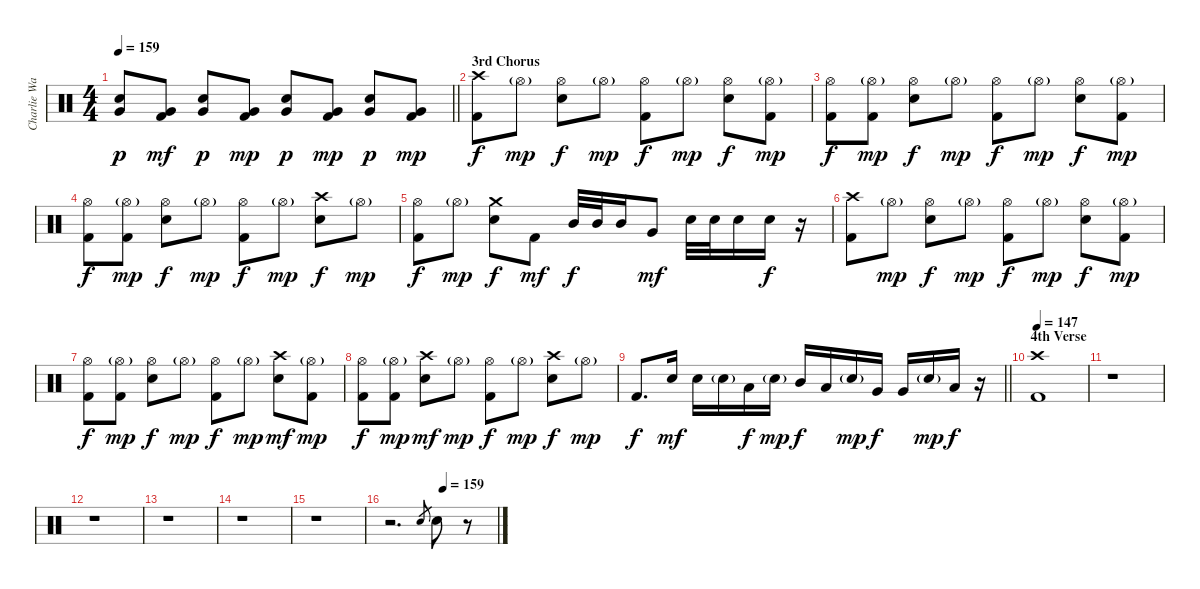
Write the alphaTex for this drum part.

\track ("Charlie Watts (Drums)" "Charlie Wa") {instrument percussion}
\staff {score}
\articulation defaults
\ts (4 4)
\tempo 159
\clef neutral
\barLineRight lightlight
\ks c
("Very Low Tom (hit)" "Electric Snare (hit)").8{dy p} ("Very Low Tom (hit)" "Kick (hit) 2").8{dy mf} ("Very Low Tom (hit)" "Electric Snare (hit)").8{dy p} ("Very Low Tom (hit)" "Kick (hit) 2").8{dy mp} ("Very Low Tom (hit)" "Electric Snare (hit)").8{dy p} ("Very Low Tom (hit)" "Kick (hit) 2").8{dy mp} ("Very Low Tom (hit)" "Electric Snare (hit)").8{dy p} ("Very Low Tom (hit)" "Kick (hit) 2").8{dy mp} |
\section ("" "3rd Chorus")
("Crash high (hit)" "Kick (hit) 2").8{dy f} "Hi-Hat (open)"{g}.8{dy mp} ("Hi-Hat (open)" "Electric Snare (hit)").8{dy f} "Hi-Hat (open)"{g}.8{dy mp} ("Hi-Hat (open)" "Kick (hit) 2").8{dy f} "Hi-Hat (open)"{g}.8{dy mp} ("Hi-Hat (open)" "Electric Snare (hit)").8{dy f} ("Hi-Hat (open)"{g} "Kick (hit) 2").8{dy mp} |
("Hi-Hat (open)" "Kick (hit) 2").8{dy f} ("Hi-Hat (open)"{g} "Kick (hit) 2").8{dy mp} ("Hi-Hat (open)" "Electric Snare (hit)").8{dy f} "Hi-Hat (open)"{g}.8{dy mp} ("Hi-Hat (open)" "Kick (hit) 2").8{dy f} "Hi-Hat (open)"{g}.8{dy mp} ("Hi-Hat (open)" "Electric Snare (hit)").8{dy f} ("Hi-Hat (open)"{g} "Kick (hit) 2").8{dy mp} |
("Hi-Hat (open)" "Kick (hit) 2").8{dy f} ("Hi-Hat (open)"{g} "Kick (hit) 2").8{dy mp} ("Hi-Hat (open)" "Electric Snare (hit)").8{dy f} "Hi-Hat (open)"{g}.8{dy mp} ("Hi-Hat (open)" "Kick (hit) 2").8{dy f} "Hi-Hat (open)"{g}.8{dy mp} ("Crash high (hit)" "Electric Snare (hit)").8{dy f} "Hi-Hat (open)"{g}.8{dy mp} |
("Hi-Hat (open)" "Kick (hit) 2").8{dy f} "Hi-Hat (open)"{g}.8{dy mp} ("Crash medium (hit)" "Electric Snare (hit)").8{dy f} "Kick (hit) 2".8{dy mf} "Mid Tom (hit)".32{dy f} "Mid Tom (hit)".32 "Mid Tom (hit)".16 "Very Low Tom (hit)".8{dy mf} "Electric Snare (hit)".32 "Electric Snare (hit)".32 "Electric Snare (hit)".16 "Electric Snare (hit)".16{dy f} r.16 |
("Crash high (hit)" "Kick (hit) 2").8 "Hi-Hat (open)"{g}.8{dy mp} ("Hi-Hat (open)" "Electric Snare (hit)").8{dy f} "Hi-Hat (open)"{g}.8{dy mp} ("Hi-Hat (open)" "Kick (hit) 2").8{dy f} "Hi-Hat (open)"{g}.8{dy mp} ("Hi-Hat (open)" "Electric Snare (hit)").8{dy f} ("Hi-Hat (open)"{g} "Kick (hit) 2").8{dy mp} |
("Hi-Hat (open)" "Kick (hit) 2").8{dy f} ("Hi-Hat (open)"{g} "Kick (hit) 2").8{dy mp} ("Hi-Hat (open)" "Electric Snare (hit)").8{dy f} "Hi-Hat (open)"{g}.8{dy mp} ("Hi-Hat (open)" "Kick (hit) 2").8{dy f} "Hi-Hat (open)"{g}.8{dy mp} ("Crash high (hit)" "Electric Snare (hit)").8{dy mf} ("Hi-Hat (open)"{g} "Kick (hit) 2").8{dy mp} |
("Hi-Hat (open)" "Kick (hit) 2").8{dy f} ("Hi-Hat (open)"{g} "Kick (hit) 2").8{dy mp} ("Crash high (hit)" "Electric Snare (hit)").8{dy mf} "Hi-Hat (open)"{g}.8{dy mp} ("Hi-Hat (open)" "Kick (hit) 2").8{dy f} "Hi-Hat (open)"{g}.8{dy mp} ("Crash high (hit)" "Electric Snare (hit)").8{dy f} "Hi-Hat (open)"{g}.8{dy mp} |
\barLineRight lightlight "Kick (hit) 2".8{d dy f} "Electric Snare (hit)".16{dy mf} "Electric Snare (hit)".16 "Electric Snare (hit)"{g}.16 "Low Tom (hit)".16{dy f} "Electric Snare (hit)"{g}.16{dy mp} "Mid Tom (hit)".16{dy f} "Low Tom (hit)".16 "Electric Snare (hit)"{g}.16{dy mp} "Very Low Tom (hit)".16{dy f} "Very Low Tom (hit)".16 "Electric Snare (hit)"{g}.16{dy mp} "Low Floor Tom (hit)".16{dy f}
r.16 |
\section ("" "4th Verse")
\tempo 147
("Crash high (hit)" "Kick (hit) 2").1 |
r.1 |
r.1 |
r.1 |
r.1 |
r.1 |
\tempo (159 0.5)
r.2{d} "Electric Snare (hit)".8{gr} "Electric Snare (hit)".8 r.8
